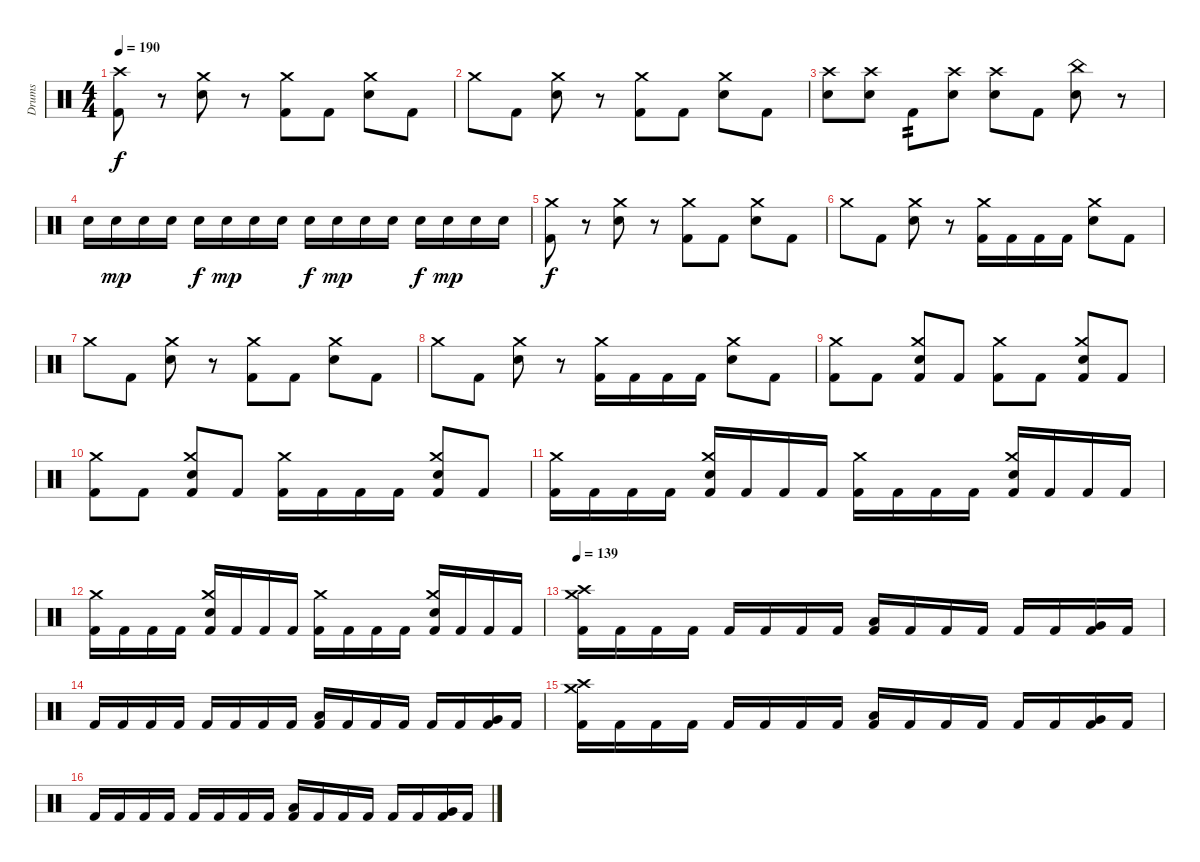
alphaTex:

\track ("Drums" "Drums") {instrument percussion}
\staff {score}
\articulation defaults
\ts (4 4)
\tempo 190
\clef neutral
\ks c
("Crash high (hit)" "Kick (hit) 2").8{dy f} r.8 ("Crash medium (hit)" "Electric Snare (hit)").8 r.8 ("Crash medium (hit)" "Kick (hit) 2").8 "Kick (hit) 2".8 ("Crash medium (hit)" "Electric Snare (hit)").8 "Kick (hit) 2".8 |
"Crash medium (hit)".8 "Kick (hit) 2".8 ("Crash medium (hit)" "Electric Snare (hit)").8 r.8 ("Crash medium (hit)" "Kick (hit) 2").8 "Kick (hit) 2".8 ("Crash medium (hit)" "Electric Snare (hit)").8 "Kick (hit) 2".8 |
("Crash high (hit)" "Electric Snare (hit)").8 ("Crash high (hit)" "Electric Snare (hit)").8 "Kick (hit) 2".8{tp 2} ("Crash high (hit)" "Electric Snare (hit)").8 ("Crash high (hit)" "Electric Snare (hit)").8 "Kick (hit) 2".8 ("China (hit)" "Electric Snare (hit)").8 r.8 |
"Electric Snare (hit)".16 "Electric Snare (hit)".16{dy mp} "Electric Snare (hit)".16 "Electric Snare (hit)".16 "Electric Snare (hit)".16{dy f} "Electric Snare (hit)".16{dy mp} "Electric Snare (hit)".16 "Electric Snare (hit)".16 "Electric Snare (hit)".16{dy f} "Electric Snare (hit)".16{dy mp} "Electric Snare (hit)".16 "Electric Snare (hit)".16 "Electric Snare (hit)".16{dy f} "Electric Snare (hit)".16{dy mp} "Electric Snare (hit)".16 "Electric Snare (hit)".16 |
("Crash medium (hit)" "Kick (hit) 2").8{dy f} r.8 ("Crash medium (hit)" "Electric Snare (hit)").8 r.8 ("Crash medium (hit)" "Kick (hit) 2").8 "Kick (hit) 2".8 ("Crash medium (hit)" "Electric Snare (hit)").8 "Kick (hit) 2".8 |
"Crash medium (hit)".8 "Kick (hit) 2".8 ("Crash medium (hit)" "Electric Snare (hit)").8 r.8 ("Crash medium (hit)" "Kick (hit) 2").16 "Kick (hit) 2".16 "Kick (hit) 2".16 "Kick (hit) 2".16 ("Crash medium (hit)" "Electric Snare (hit)").8 "Kick (hit) 2".8 |
"Crash medium (hit)".8 "Kick (hit) 2".8 ("Crash medium (hit)" "Electric Snare (hit)").8 r.8 ("Crash medium (hit)" "Kick (hit) 2").8 "Kick (hit) 2".8 ("Crash medium (hit)" "Electric Snare (hit)").8 "Kick (hit) 2".8 |
"Crash medium (hit)".8 "Kick (hit) 2".8 ("Crash medium (hit)" "Electric Snare (hit)").8 r.8 ("Crash medium (hit)" "Kick (hit) 2").16 "Kick (hit) 2".16 "Kick (hit) 2".16 "Kick (hit) 2".16 ("Crash medium (hit)" "Electric Snare (hit)").8 "Kick (hit) 2".8 |
("Crash medium (hit)" "Kick (hit) 2").8 "Kick (hit) 2".8 ("Crash medium (hit)" "Electric Snare (hit)" "Kick (hit) 2").8 "Kick (hit) 2".8 ("Crash medium (hit)" "Kick (hit) 2").8 "Kick (hit) 2".8 ("Crash medium (hit)" "Electric Snare (hit)" "Kick (hit) 2").8 "Kick (hit) 2".8 |
("Crash medium (hit)" "Kick (hit) 2").8 "Kick (hit) 2".8 ("Crash medium (hit)" "Electric Snare (hit)" "Kick (hit) 2").8 "Kick (hit) 2".8 ("Crash medium (hit)" "Kick (hit) 2").16 "Kick (hit) 2".16 "Kick (hit) 2".16 "Kick (hit) 2".16 ("Crash medium (hit)" "Electric Snare (hit)" "Kick (hit) 2").8 "Kick (hit) 2".8 |
("Crash medium (hit)" "Kick (hit) 2").16 "Kick (hit) 2".16 "Kick (hit) 2".16 "Kick (hit) 2".16 ("Crash medium (hit)" "Electric Snare (hit)" "Kick (hit) 2").16 "Kick (hit) 2".16 "Kick (hit) 2".16 "Kick (hit) 2".16 ("Crash medium (hit)" "Kick (hit) 2").16 "Kick (hit) 2".16 "Kick (hit) 2".16 "Kick (hit) 2".16 ("Crash medium (hit)" "Electric Snare (hit)" "Kick (hit) 2").16 "Kick (hit) 2".16 "Kick (hit) 2".16 "Kick (hit) 2".16 |
("Crash medium (hit)" "Kick (hit) 2").16 "Kick (hit) 2".16 "Kick (hit) 2".16 "Kick (hit) 2".16 ("Crash medium (hit)" "Electric Snare (hit)" "Kick (hit) 2").16 "Kick (hit) 2".16 "Kick (hit) 2".16 "Kick (hit) 2".16 ("Crash medium (hit)" "Kick (hit) 2").16 "Kick (hit) 2".16 "Kick (hit) 2".16 "Kick (hit) 2".16 ("Crash medium (hit)" "Electric Snare (hit)" "Kick (hit) 2").16 "Kick (hit) 2".16 "Kick (hit) 2".16 "Kick (hit) 2".16 |
\tempo 139
("Crash high (hit)" "Crash medium (hit)" "Kick (hit) 2").16 "Kick (hit) 2".16 "Kick (hit) 2".16 "Kick (hit) 2".16 "Kick (hit) 2".16 "Kick (hit) 2".16 "Kick (hit) 2".16 "Kick (hit) 2".16 ("Low Tom (hit)" "Kick (hit) 2").16 "Kick (hit) 2".16 "Kick (hit) 2".16 "Kick (hit) 2".16 "Kick (hit) 2".16 "Kick (hit) 2".16 ("Very Low Tom (hit)" "Kick (hit) 2").16 "Kick (hit) 2".16 |
"Kick (hit) 2".16 "Kick (hit) 2".16 "Kick (hit) 2".16 "Kick (hit) 2".16 "Kick (hit) 2".16 "Kick (hit) 2".16 "Kick (hit) 2".16 "Kick (hit) 2".16 ("Low Tom (hit)" "Kick (hit) 2").16 "Kick (hit) 2".16 "Kick (hit) 2".16 "Kick (hit) 2".16 "Kick (hit) 2".16 "Kick (hit) 2".16 ("Very Low Tom (hit)" "Kick (hit) 2").16 "Kick (hit) 2".16 |
("Crash high (hit)" "Crash medium (hit)" "Kick (hit) 2").16 "Kick (hit) 2".16 "Kick (hit) 2".16 "Kick (hit) 2".16 "Kick (hit) 2".16 "Kick (hit) 2".16 "Kick (hit) 2".16 "Kick (hit) 2".16 ("Low Tom (hit)" "Kick (hit) 2").16 "Kick (hit) 2".16 "Kick (hit) 2".16 "Kick (hit) 2".16 "Kick (hit) 2".16 "Kick (hit) 2".16 ("Very Low Tom (hit)" "Kick (hit) 2").16 "Kick (hit) 2".16 |
"Kick (hit) 2".16 "Kick (hit) 2".16 "Kick (hit) 2".16 "Kick (hit) 2".16 "Kick (hit) 2".16 "Kick (hit) 2".16 "Kick (hit) 2".16 "Kick (hit) 2".16 ("Low Tom (hit)" "Kick (hit) 2").16 "Kick (hit) 2".16 "Kick (hit) 2".16 "Kick (hit) 2".16 "Kick (hit) 2".16 "Kick (hit) 2".16 ("Very Low Tom (hit)" "Kick (hit) 2").16 "Kick (hit) 2".16
